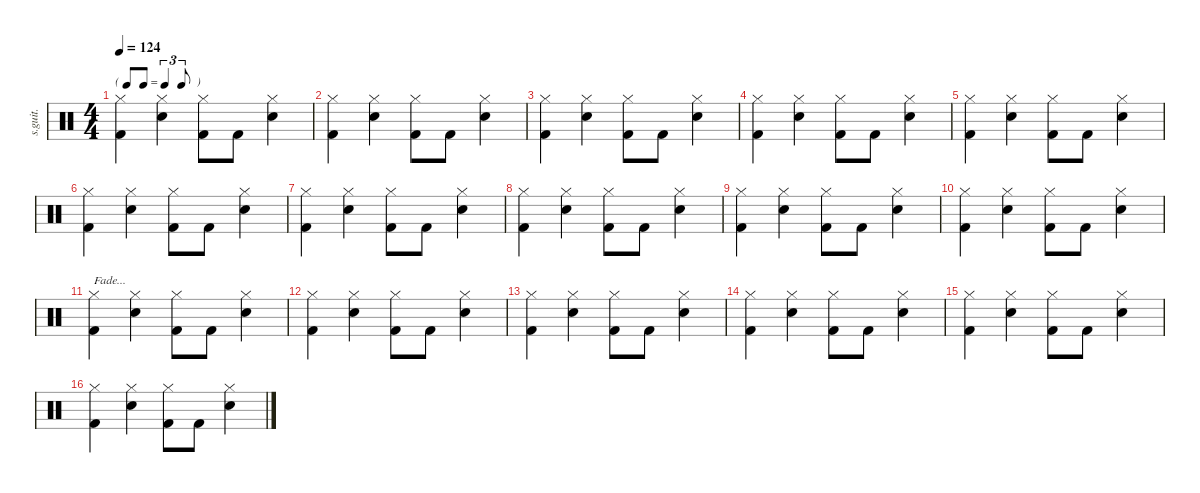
\defaultSystemsLayout 4
\hideDynamics
\bracketExtendMode nobrackets
\track ("Nick Mason | Ludwig Drumkit | Drums" "s.guit.") {instrument percussion}
\staff {score}
\articulation defaults
\ts (4 4)
\tf triplet8th
\tempo 124
\clef neutral
\ks c
("Hi-Hat (closed)" "Kick (hit) 2").4{dy f} ("Hi-Hat (closed)" "Snare (hit) 2").4{dy mf} ("Hi-Hat (closed)" "Kick (hit) 2").8 "Kick (hit) 2".8 ("Hi-Hat (closed)" "Snare (hit) 2").4 |
("Hi-Hat (closed)" "Kick (hit) 2").4{dy f} ("Hi-Hat (closed)" "Snare (hit) 2").4{dy mf} ("Hi-Hat (closed)" "Kick (hit) 2").8 "Kick (hit) 2".8 ("Hi-Hat (closed)" "Snare (hit) 2").4 |
("Hi-Hat (closed)" "Kick (hit) 2").4{dy f} ("Hi-Hat (closed)" "Snare (hit) 2").4{dy mf} ("Hi-Hat (closed)" "Kick (hit) 2").8 "Kick (hit) 2".8 ("Hi-Hat (closed)" "Snare (hit) 2").4 |
("Hi-Hat (closed)" "Kick (hit) 2").4{dy f} ("Hi-Hat (closed)" "Snare (hit) 2").4{dy mf} ("Hi-Hat (closed)" "Kick (hit) 2").8 "Kick (hit) 2".8 ("Hi-Hat (closed)" "Snare (hit) 2").4 |
("Hi-Hat (closed)" "Kick (hit) 2").4{dy f} ("Hi-Hat (closed)" "Snare (hit) 2").4{dy mf} ("Hi-Hat (closed)" "Kick (hit) 2").8 "Kick (hit) 2".8 ("Hi-Hat (closed)" "Snare (hit) 2").4 |
("Hi-Hat (closed)" "Kick (hit) 2").4{dy f} ("Hi-Hat (closed)" "Snare (hit) 2").4{dy mf} ("Hi-Hat (closed)" "Kick (hit) 2").8 "Kick (hit) 2".8 ("Hi-Hat (closed)" "Snare (hit) 2").4 |
("Hi-Hat (closed)" "Kick (hit) 2").4{dy f} ("Hi-Hat (closed)" "Snare (hit) 2").4{dy mf} ("Hi-Hat (closed)" "Kick (hit) 2").8 "Kick (hit) 2".8 ("Hi-Hat (closed)" "Snare (hit) 2").4 |
("Hi-Hat (closed)" "Kick (hit) 2").4{dy f} ("Hi-Hat (closed)" "Snare (hit) 2").4{dy mf} ("Hi-Hat (closed)" "Kick (hit) 2").8 "Kick (hit) 2".8 ("Hi-Hat (closed)" "Snare (hit) 2").4 |
("Hi-Hat (closed)" "Kick (hit) 2").4{dy f} ("Hi-Hat (closed)" "Snare (hit) 2").4{dy mf} ("Hi-Hat (closed)" "Kick (hit) 2").8 "Kick (hit) 2".8 ("Hi-Hat (closed)" "Snare (hit) 2").4 |
("Hi-Hat (closed)" "Kick (hit) 2").4{dy f} ("Hi-Hat (closed)" "Snare (hit) 2").4{dy mf} ("Hi-Hat (closed)" "Kick (hit) 2").8 "Kick (hit) 2".8 ("Hi-Hat (closed)" "Snare (hit) 2").4 |
("Hi-Hat (closed)" "Kick (hit) 2").4{txt "Fade..." dy f} ("Hi-Hat (closed)" "Snare (hit) 2").4{dy mf} ("Hi-Hat (closed)" "Kick (hit) 2").8 "Kick (hit) 2".8 ("Hi-Hat (closed)" "Snare (hit) 2").4 |
("Hi-Hat (closed)" "Kick (hit) 2").4{dy f} ("Hi-Hat (closed)" "Snare (hit) 2").4{dy mf} ("Hi-Hat (closed)" "Kick (hit) 2").8 "Kick (hit) 2".8 ("Hi-Hat (closed)" "Snare (hit) 2").4 |
("Hi-Hat (closed)" "Kick (hit) 2").4{dy f} ("Hi-Hat (closed)" "Snare (hit) 2").4{dy mf} ("Hi-Hat (closed)" "Kick (hit) 2").8 "Kick (hit) 2".8 ("Hi-Hat (closed)" "Snare (hit) 2").4 |
("Hi-Hat (closed)" "Kick (hit) 2").4{dy f} ("Hi-Hat (closed)" "Snare (hit) 2").4{dy mf} ("Hi-Hat (closed)" "Kick (hit) 2").8 "Kick (hit) 2".8 ("Hi-Hat (closed)" "Snare (hit) 2").4 |
("Hi-Hat (closed)" "Kick (hit) 2").4{dy f} ("Hi-Hat (closed)" "Snare (hit) 2").4{dy mf} ("Hi-Hat (closed)" "Kick (hit) 2").8 "Kick (hit) 2".8 ("Hi-Hat (closed)" "Snare (hit) 2").4 |
("Hi-Hat (closed)" "Kick (hit) 2").4{dy f} ("Hi-Hat (closed)" "Snare (hit) 2").4{dy mf} ("Hi-Hat (closed)" "Kick (hit) 2").8 "Kick (hit) 2".8 ("Hi-Hat (closed)" "Snare (hit) 2").4
